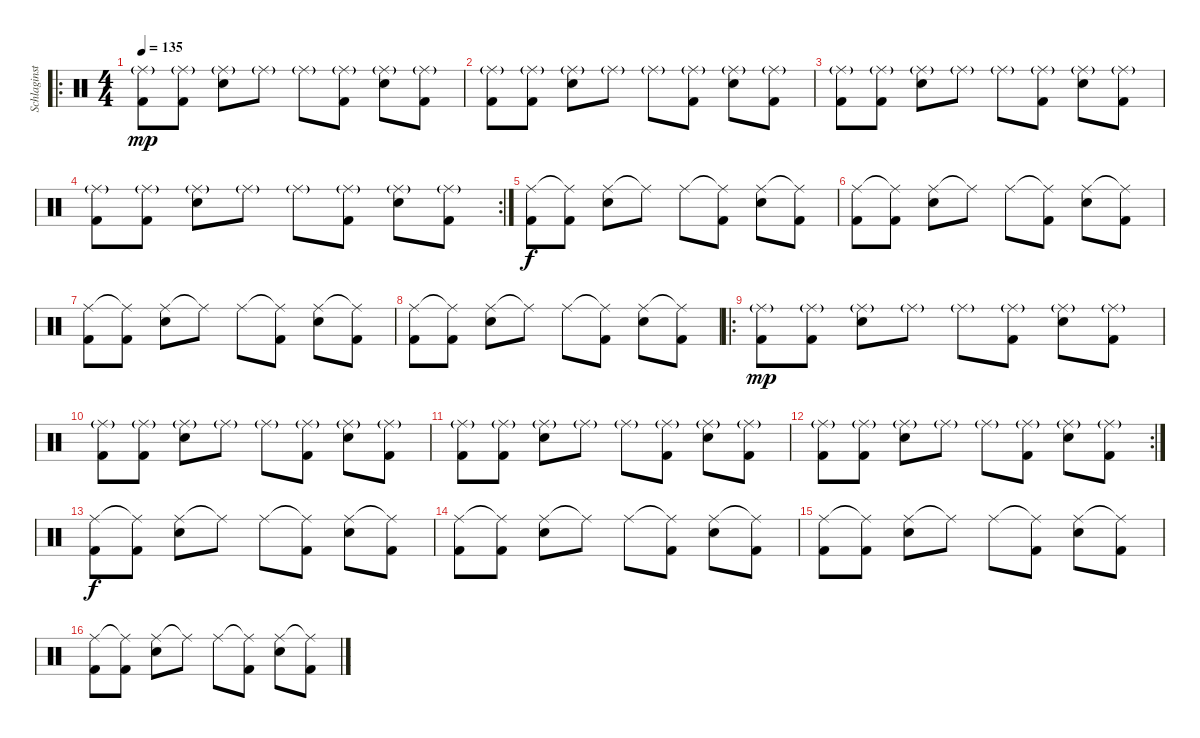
\track ("Schlaginstrumente - Auswahl" "Schlaginst") {instrument percussion}
\staff {score}
\articulation defaults
\ro
\ts (4 4)
\tempo 135
\clef neutral
\ks c
("Ride (middle)"{g} "Kick (hit) 2").8{dy mp} ("Ride (middle)"{g} "Kick (hit) 2").8 ("Ride (middle)"{g} "Snare (hit) 2").8 "Ride (middle)"{g}.8 "Ride (middle)"{g}.8 ("Ride (middle)"{g} "Kick (hit) 2").8 ("Ride (middle)"{g} "Snare (hit) 2").8 ("Ride (middle)"{g} "Kick (hit) 2").8 |
("Ride (middle)"{g} "Kick (hit) 2").8 ("Ride (middle)"{g} "Kick (hit) 2").8 ("Ride (middle)"{g} "Snare (hit) 2").8 "Ride (middle)"{g}.8 "Ride (middle)"{g}.8 ("Ride (middle)"{g} "Kick (hit) 2").8 ("Ride (middle)"{g} "Snare (hit) 2").8 ("Ride (middle)"{g} "Kick (hit) 2").8 |
("Ride (middle)"{g} "Kick (hit) 2").8 ("Ride (middle)"{g} "Kick (hit) 2").8 ("Ride (middle)"{g} "Snare (hit) 2").8 "Ride (middle)"{g}.8 "Ride (middle)"{g}.8 ("Ride (middle)"{g} "Kick (hit) 2").8 ("Ride (middle)"{g} "Snare (hit) 2").8 ("Ride (middle)"{g} "Kick (hit) 2").8 |
\rc 2
("Ride (middle)"{g} "Kick (hit) 2").8 ("Ride (middle)"{g} "Kick (hit) 2").8 ("Ride (middle)"{g} "Snare (hit) 2").8 "Ride (middle)"{g}.8 "Ride (middle)"{g}.8 ("Ride (middle)"{g} "Kick (hit) 2").8 ("Ride (middle)"{g} "Snare (hit) 2").8 ("Ride (middle)"{g} "Kick (hit) 2").8 |
("Ride (middle)" "Kick (hit) 2").8{dy f} ("Ride (middle)"{t} "Kick (hit) 2").8 ("Ride (middle)" "Snare (hit) 2").8 "Ride (middle)"{t}.8 "Ride (middle)".8 ("Ride (middle)"{t} "Kick (hit) 2").8 ("Ride (middle)" "Snare (hit) 2").8 ("Ride (middle)"{t} "Kick (hit) 2").8 |
("Ride (middle)" "Kick (hit) 2").8 ("Ride (middle)"{t} "Kick (hit) 2").8 ("Ride (middle)" "Snare (hit) 2").8 "Ride (middle)"{t}.8 "Ride (middle)".8 ("Ride (middle)"{t} "Kick (hit) 2").8 ("Ride (middle)" "Snare (hit) 2").8 ("Ride (middle)"{t} "Kick (hit) 2").8 |
("Ride (middle)" "Kick (hit) 2").8 ("Ride (middle)"{t} "Kick (hit) 2").8 ("Ride (middle)" "Snare (hit) 2").8 "Ride (middle)"{t}.8 "Ride (middle)".8 ("Ride (middle)"{t} "Kick (hit) 2").8 ("Ride (middle)" "Snare (hit) 2").8 ("Ride (middle)"{t} "Kick (hit) 2").8 |
("Ride (middle)" "Kick (hit) 2").8 ("Ride (middle)"{t} "Kick (hit) 2").8 ("Ride (middle)" "Snare (hit) 2").8 "Ride (middle)"{t}.8 "Ride (middle)".8 ("Ride (middle)"{t} "Kick (hit) 2").8 ("Ride (middle)" "Snare (hit) 2").8 ("Ride (middle)"{t} "Kick (hit) 2").8 |
\ro
("Ride (middle)"{g} "Kick (hit) 2").8{dy mp} ("Ride (middle)"{g} "Kick (hit) 2").8 ("Ride (middle)"{g} "Snare (hit) 2").8 "Ride (middle)"{g}.8 "Ride (middle)"{g}.8 ("Ride (middle)"{g} "Kick (hit) 2").8 ("Ride (middle)"{g} "Snare (hit) 2").8 ("Ride (middle)"{g} "Kick (hit) 2").8 |
("Ride (middle)"{g} "Kick (hit) 2").8 ("Ride (middle)"{g} "Kick (hit) 2").8 ("Ride (middle)"{g} "Snare (hit) 2").8 "Ride (middle)"{g}.8 "Ride (middle)"{g}.8 ("Ride (middle)"{g} "Kick (hit) 2").8 ("Ride (middle)"{g} "Snare (hit) 2").8 ("Ride (middle)"{g} "Kick (hit) 2").8 |
("Ride (middle)"{g} "Kick (hit) 2").8 ("Ride (middle)"{g} "Kick (hit) 2").8 ("Ride (middle)"{g} "Snare (hit) 2").8 "Ride (middle)"{g}.8 "Ride (middle)"{g}.8 ("Ride (middle)"{g} "Kick (hit) 2").8 ("Ride (middle)"{g} "Snare (hit) 2").8 ("Ride (middle)"{g} "Kick (hit) 2").8 |
\rc 2
("Ride (middle)"{g} "Kick (hit) 2").8 ("Ride (middle)"{g} "Kick (hit) 2").8 ("Ride (middle)"{g} "Snare (hit) 2").8 "Ride (middle)"{g}.8 "Ride (middle)"{g}.8 ("Ride (middle)"{g} "Kick (hit) 2").8 ("Ride (middle)"{g} "Snare (hit) 2").8 ("Ride (middle)"{g} "Kick (hit) 2").8 |
("Ride (middle)" "Kick (hit) 2").8{dy f} ("Ride (middle)"{t} "Kick (hit) 2").8 ("Ride (middle)" "Snare (hit) 2").8 "Ride (middle)"{t}.8 "Ride (middle)".8 ("Ride (middle)"{t} "Kick (hit) 2").8 ("Ride (middle)" "Snare (hit) 2").8 ("Ride (middle)"{t} "Kick (hit) 2").8 |
("Ride (middle)" "Kick (hit) 2").8 ("Ride (middle)"{t} "Kick (hit) 2").8 ("Ride (middle)" "Snare (hit) 2").8 "Ride (middle)"{t}.8 "Ride (middle)".8 ("Ride (middle)"{t} "Kick (hit) 2").8 ("Ride (middle)" "Snare (hit) 2").8 ("Ride (middle)"{t} "Kick (hit) 2").8 |
("Ride (middle)" "Kick (hit) 2").8 ("Ride (middle)"{t} "Kick (hit) 2").8 ("Ride (middle)" "Snare (hit) 2").8 "Ride (middle)"{t}.8 "Ride (middle)".8 ("Ride (middle)"{t} "Kick (hit) 2").8 ("Ride (middle)" "Snare (hit) 2").8 ("Ride (middle)"{t} "Kick (hit) 2").8 |
("Ride (middle)" "Kick (hit) 2").8 ("Ride (middle)"{t} "Kick (hit) 2").8 ("Ride (middle)" "Snare (hit) 2").8 "Ride (middle)"{t}.8 "Ride (middle)".8 ("Ride (middle)"{t} "Kick (hit) 2").8 ("Ride (middle)" "Snare (hit) 2").8 ("Ride (middle)"{t} "Kick (hit) 2").8
